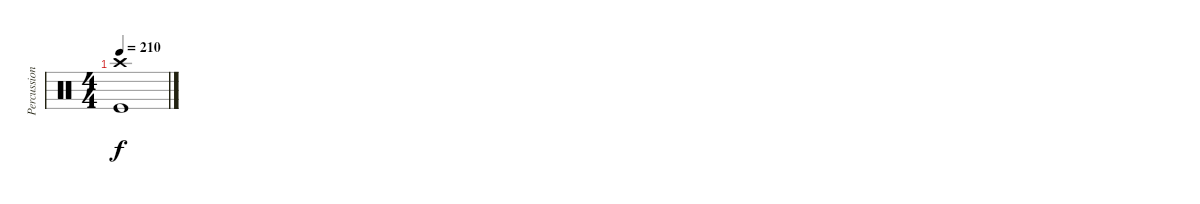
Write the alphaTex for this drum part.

\track ("Percussion" "Percussion") {instrument percussion}
\staff {score}
\articulation defaults
\ts (4 4)
\tempo 210
\clef neutral
\ks c
("Crash high (hit)" "Kick (hit)").1{dy f}
